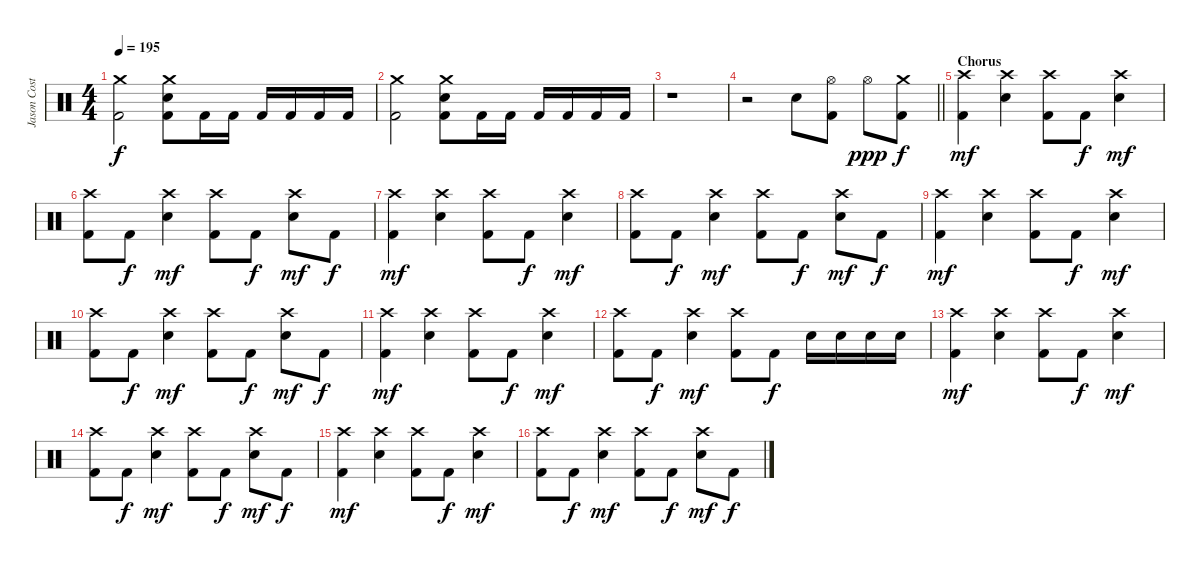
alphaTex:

\track ("Jason Costa" "Jason Cost") {instrument percussion}
\staff {score}
\articulation defaults
\ts (4 4)
\tempo 195
\clef neutral
\ks c
("Crash medium (hit)" "Kick (hit) 2").2{dy f} ("Crash medium (hit)" "Electric Snare (hit)" "Kick (hit) 2").8 "Kick (hit) 2".16 "Kick (hit) 2".16 "Kick (hit) 2".16 "Kick (hit) 2".16 "Kick (hit) 2".16 "Kick (hit) 2".16 |
("Crash medium (hit)" "Kick (hit) 2").2 ("Crash medium (hit)" "Electric Snare (hit)" "Kick (hit) 2").8 "Kick (hit) 2".16 "Kick (hit) 2".16 "Kick (hit) 2".16 "Kick (hit) 2".16 "Kick (hit) 2".16 "Kick (hit) 2".16 |
r.1 |
\barLineRight lightlight
r.2 "Electric Snare (hit)".8 ("Hi-Hat (open)" "Kick (hit) 2").8 "Hi-Hat (open)".8{dy ppp} ("Crash medium (hit)" "Kick (hit) 2").8{dy f} |
\section ("" "Chorus")
("Crash high (hit)" "Kick (hit) 2").4{dy mf} ("Crash high (hit)" "Electric Snare (hit)").4 ("Crash high (hit)" "Kick (hit) 2").8 "Kick (hit) 2".8{dy f} ("Crash high (hit)" "Electric Snare (hit)").4{dy mf} |
("Crash high (hit)" "Kick (hit) 2").8 "Kick (hit) 2".8{dy f} ("Crash high (hit)" "Electric Snare (hit)").4{dy mf} ("Crash high (hit)" "Kick (hit) 2").8 "Kick (hit) 2".8{dy f} ("Crash high (hit)" "Electric Snare (hit)").8{dy mf} "Kick (hit) 2".8{dy f} |
("Crash high (hit)" "Kick (hit) 2").4{dy mf} ("Crash high (hit)" "Electric Snare (hit)").4 ("Crash high (hit)" "Kick (hit) 2").8 "Kick (hit) 2".8{dy f} ("Crash high (hit)" "Electric Snare (hit)").4{dy mf} |
("Crash high (hit)" "Kick (hit) 2").8 "Kick (hit) 2".8{dy f} ("Crash high (hit)" "Electric Snare (hit)").4{dy mf} ("Crash high (hit)" "Kick (hit) 2").8 "Kick (hit) 2".8{dy f} ("Crash high (hit)" "Electric Snare (hit)").8{dy mf} "Kick (hit) 2".8{dy f} |
("Crash high (hit)" "Kick (hit) 2").4{dy mf} ("Crash high (hit)" "Electric Snare (hit)").4 ("Crash high (hit)" "Kick (hit) 2").8 "Kick (hit) 2".8{dy f} ("Crash high (hit)" "Electric Snare (hit)").4{dy mf} |
("Crash high (hit)" "Kick (hit) 2").8 "Kick (hit) 2".8{dy f} ("Crash high (hit)" "Electric Snare (hit)").4{dy mf} ("Crash high (hit)" "Kick (hit) 2").8 "Kick (hit) 2".8{dy f} ("Crash high (hit)" "Electric Snare (hit)").8{dy mf} "Kick (hit) 2".8{dy f} |
("Crash high (hit)" "Kick (hit) 2").4{dy mf} ("Crash high (hit)" "Electric Snare (hit)").4 ("Crash high (hit)" "Kick (hit) 2").8 "Kick (hit) 2".8{dy f} ("Crash high (hit)" "Electric Snare (hit)").4{dy mf} |
("Crash high (hit)" "Kick (hit) 2").8 "Kick (hit) 2".8{dy f} ("Crash high (hit)" "Electric Snare (hit)").4{dy mf} ("Crash high (hit)" "Kick (hit) 2").8 "Kick (hit) 2".8{dy f} "Electric Snare (hit)".16 "Electric Snare (hit)".16 "Electric Snare (hit)".16 "Electric Snare (hit)".16 |
("Crash high (hit)" "Kick (hit) 2").4{dy mf} ("Crash high (hit)" "Electric Snare (hit)").4 ("Crash high (hit)" "Kick (hit) 2").8 "Kick (hit) 2".8{dy f} ("Crash high (hit)" "Electric Snare (hit)").4{dy mf} |
("Crash high (hit)" "Kick (hit) 2").8 "Kick (hit) 2".8{dy f} ("Crash high (hit)" "Electric Snare (hit)").4{dy mf} ("Crash high (hit)" "Kick (hit) 2").8 "Kick (hit) 2".8{dy f} ("Crash high (hit)" "Electric Snare (hit)").8{dy mf} "Kick (hit) 2".8{dy f} |
("Crash high (hit)" "Kick (hit) 2").4{dy mf} ("Crash high (hit)" "Electric Snare (hit)").4 ("Crash high (hit)" "Kick (hit) 2").8 "Kick (hit) 2".8{dy f} ("Crash high (hit)" "Electric Snare (hit)").4{dy mf} |
("Crash high (hit)" "Kick (hit) 2").8 "Kick (hit) 2".8{dy f} ("Crash high (hit)" "Electric Snare (hit)").4{dy mf} ("Crash high (hit)" "Kick (hit) 2").8 "Kick (hit) 2".8{dy f} ("Crash high (hit)" "Electric Snare (hit)").8{dy mf} "Kick (hit) 2".8{dy f}
